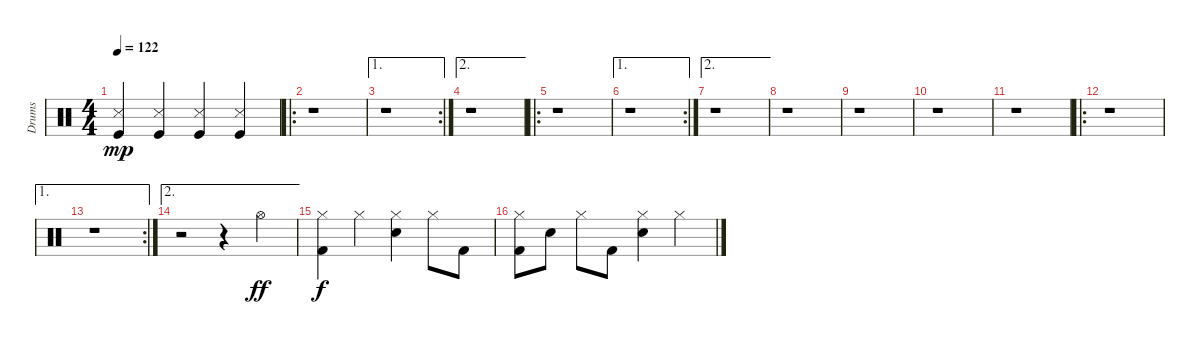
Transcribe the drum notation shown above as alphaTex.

\track ("Drums" "Drums") {instrument percussion}
\staff {score}
\articulation defaults
\ts (4 4)
\tempo 122
\clef neutral
\ks c
("Snare (side stick) 3" "Kick (hit)").4{dy mp} ("Snare (side stick) 3" "Kick (hit)").4 ("Snare (side stick) 3" "Kick (hit)").4 ("Snare (side stick) 3" "Kick (hit)").4 |
\ro
r.1 |
\ae 1
\rc 2
r.1 |
\ae 2
r.1 |
\ro
r.1 |
\ae 1
\rc 2
r.1 |
\ae 2
r.1 |
r.1 |
r.1 |
r.1 |
r.1 |
\ro
r.1 |
\ae 1
\rc 2
r.1 |
\ae 2
r.2 r.4 "Hi-Hat (open)".4{dy ff} |
("Hi-Hat (closed)" "Kick (hit) 2").4{dy f} "Hi-Hat (closed)".4 ("Hi-Hat (closed)" "Snare (hit) 2").4 "Hi-Hat (closed)".8 "Kick (hit) 2".8 |
("Hi-Hat (closed)" "Kick (hit) 2").8 "Snare (hit) 2".8 "Hi-Hat (closed)".8 "Kick (hit) 2".8 ("Hi-Hat (closed)" "Snare (hit) 2").4 "Hi-Hat (closed)".4
